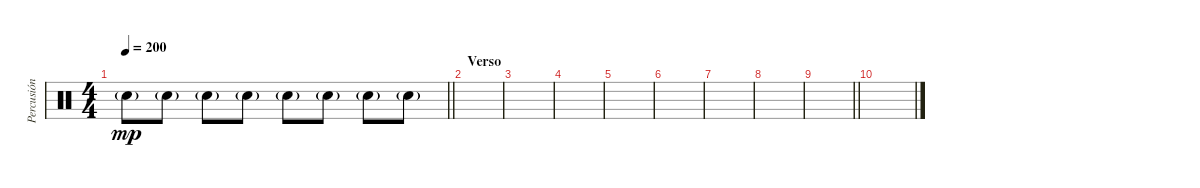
\track ("Percusión" "Percusión") {instrument percussion}
\staff {score}
\articulation defaults
\ts (4 4)
\tempo 200
\clef neutral
\barLineRight lightlight
\ks c "Hand Clap (hit)"{g}.8{dy mp} "Hand Clap (hit)"{g}.8 "Hand Clap (hit)"{g}.8 "Hand Clap (hit)"{g}.8 "Hand Clap (hit)"{g}.8 "Hand Clap (hit)"{g}.8 "Hand Clap (hit)"{g}.8 "Hand Clap (hit)"{g}.8
|
\section ("" "Verso")
|
|
|
|
|
|
|
\barLineRight lightlight
|
\section ("" "")
